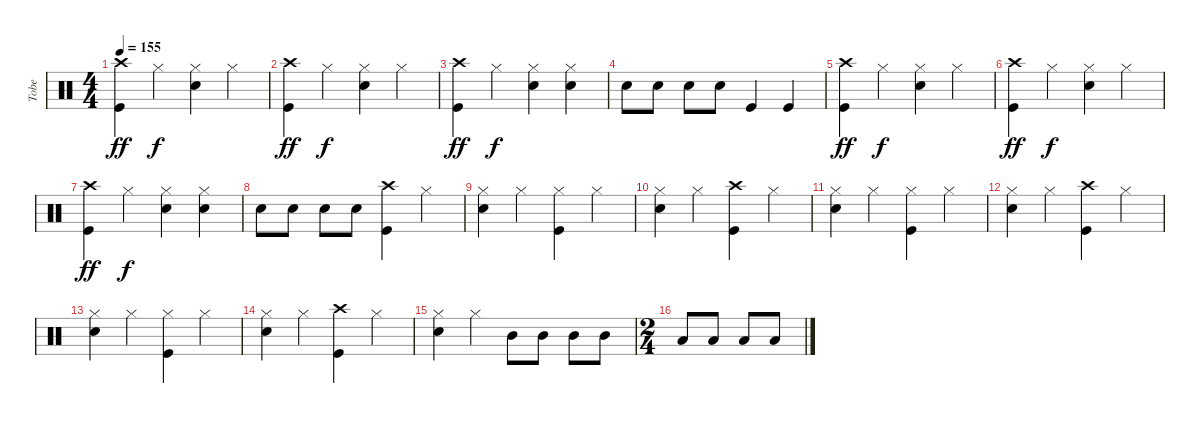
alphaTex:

\track ("Tobe" "Tobe") {instrument percussion}
\staff {score}
\articulation defaults
\ts (4 4)
\tempo 155
\clef neutral
\ks c
("Crash high (hit)" "Kick (hit)").4{dy ff} "Hi-Hat (closed)".4{dy f} ("Hi-Hat (closed)" "Electric Snare (hit)").4 "Hi-Hat (closed)".4 |
("Crash high (hit)" "Kick (hit)").4{dy ff} "Hi-Hat (closed)".4{dy f} ("Hi-Hat (closed)" "Electric Snare (hit)").4 "Hi-Hat (closed)".4 |
("Crash high (hit)" "Kick (hit)").4{dy ff} "Hi-Hat (closed)".4{dy f} ("Hi-Hat (closed)" "Electric Snare (hit)").4 ("Hi-Hat (closed)" "Electric Snare (hit)").4 |
"Electric Snare (hit)".8 "Electric Snare (hit)".8 "Electric Snare (hit)".8 "Electric Snare (hit)".8 "Kick (hit)".4 "Kick (hit)".4 |
("Crash high (hit)" "Kick (hit)").4{dy ff} "Hi-Hat (closed)".4{dy f} ("Hi-Hat (closed)" "Electric Snare (hit)").4 "Hi-Hat (closed)".4 |
("Crash high (hit)" "Kick (hit)").4{dy ff} "Hi-Hat (closed)".4{dy f} ("Hi-Hat (closed)" "Electric Snare (hit)").4 "Hi-Hat (closed)".4 |
("Crash high (hit)" "Kick (hit)").4{dy ff} "Hi-Hat (closed)".4{dy f} ("Hi-Hat (closed)" "Electric Snare (hit)").4 ("Hi-Hat (closed)" "Electric Snare (hit)").4 |
"Electric Snare (hit)".8 "Electric Snare (hit)".8 "Electric Snare (hit)".8 "Electric Snare (hit)".8 ("Crash high (hit)" "Kick (hit)").4 "Hi-Hat (closed)".4 |
("Hi-Hat (closed)" "Electric Snare (hit)").4 "Hi-Hat (closed)".4 ("Hi-Hat (closed)" "Kick (hit)").4 "Hi-Hat (closed)".4 |
("Hi-Hat (closed)" "Electric Snare (hit)").4 "Hi-Hat (closed)".4 ("Crash high (hit)" "Kick (hit)").4 "Hi-Hat (closed)".4 |
("Hi-Hat (closed)" "Electric Snare (hit)").4 "Hi-Hat (closed)".4 ("Hi-Hat (closed)" "Kick (hit)").4 "Hi-Hat (closed)".4 |
("Hi-Hat (closed)" "Electric Snare (hit)").4 "Hi-Hat (closed)".4 ("Crash high (hit)" "Kick (hit)").4 "Hi-Hat (closed)".4 |
("Hi-Hat (closed)" "Electric Snare (hit)").4 "Hi-Hat (closed)".4 ("Hi-Hat (closed)" "Kick (hit)").4 "Hi-Hat (closed)".4 |
("Hi-Hat (closed)" "Electric Snare (hit)").4 "Hi-Hat (closed)".4 ("Crash high (hit)" "Kick (hit)").4 "Hi-Hat (closed)".4 |
("Hi-Hat (closed)" "Electric Snare (hit)").4 "Hi-Hat (closed)".4 "Mid Tom (hit)".8 "Mid Tom (hit)".8 "Mid Tom (hit)".8 "Mid Tom (hit)".8 |
\ts (2 4)
"Low Tom (hit)".8 "Low Tom (hit)".8 "Low Tom (hit)".8 "Low Tom (hit)".8
